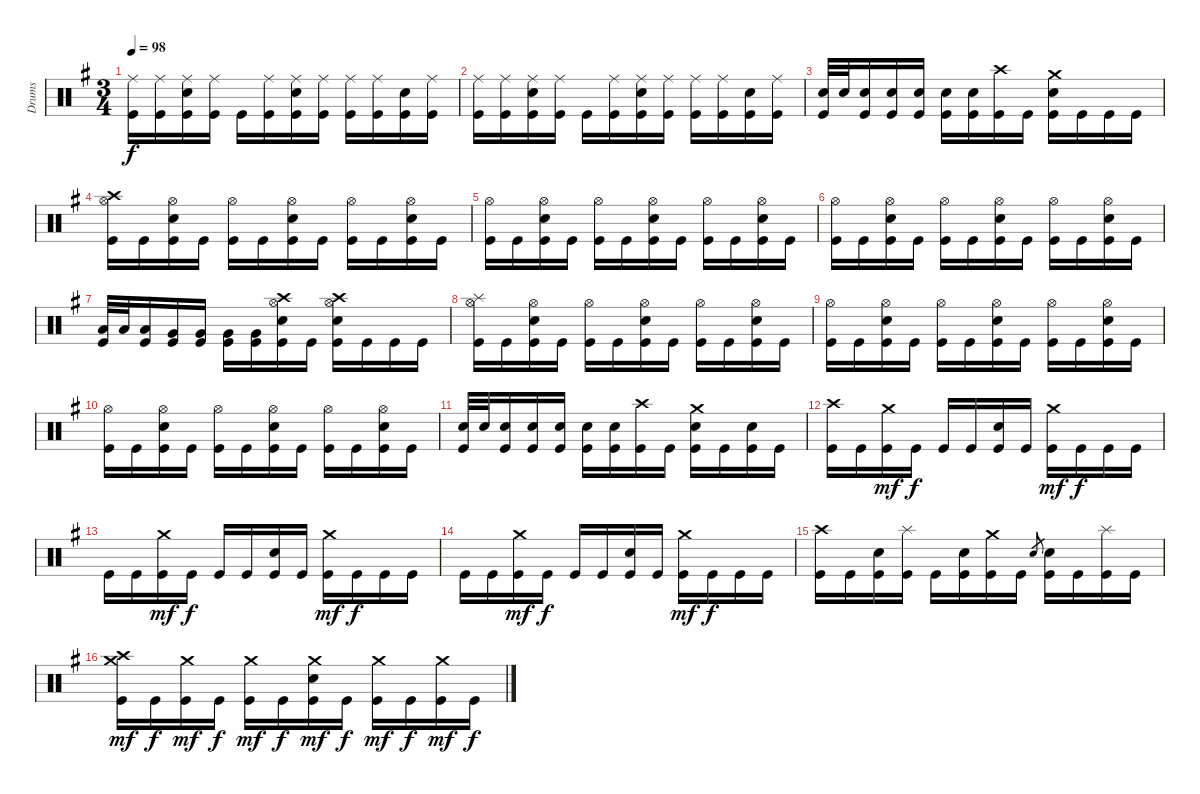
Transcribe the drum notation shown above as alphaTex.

\track ("Drums" "Drums") {instrument percussion}
\staff {score}
\articulation defaults
\ts (3 4)
\tempo 98
\clef neutral
\ks eminor
("Ride (middle)" "Kick (hit)").16{dy f} ("Ride (middle)" "Kick (hit)").16 ("Ride (middle)" "Electric Snare (hit)" "Kick (hit)").16 ("Ride (middle)" "Kick (hit)").16 "Kick (hit)".16 ("Ride (middle)" "Kick (hit)").16 ("Ride (middle)" "Electric Snare (hit)" "Kick (hit)").16 ("Ride (middle)" "Kick (hit)").16 ("Ride (middle)" "Kick (hit)").16 ("Ride (middle)" "Kick (hit)").16 ("Electric Snare (hit)" "Kick (hit)").16 ("Ride (middle)" "Kick (hit)").16 |
("Ride (middle)" "Kick (hit)").16 ("Ride (middle)" "Kick (hit)").16 ("Ride (middle)" "Electric Snare (hit)" "Kick (hit)").16 ("Ride (middle)" "Kick (hit)").16 "Kick (hit)".16 ("Ride (middle)" "Kick (hit)").16 ("Ride (middle)" "Electric Snare (hit)" "Kick (hit)").16 ("Ride (middle)" "Kick (hit)").16 ("Ride (middle)" "Kick (hit)").16 ("Ride (middle)" "Kick (hit)").16 ("Electric Snare (hit)" "Kick (hit)").16 ("Ride (middle)" "Kick (hit)").16 |
("Electric Snare (hit)" "Kick (hit)").32 "Electric Snare (hit)".32 ("Electric Snare (hit)" "Kick (hit)").16 ("Electric Snare (hit)" "Kick (hit)").16 ("Electric Snare (hit)" "Kick (hit)").16 ("Electric Snare (hit)" "Kick (hit)").16 ("Electric Snare (hit)" "Kick (hit)").16 ("Crash high (hit)" "Kick (hit)").16 "Kick (hit)".16 ("Crash medium (hit)" "Electric Snare (hit)" "Kick (hit)").16 "Kick (hit)".16 "Kick (hit)".16 "Kick (hit)".16 |
("Crash high (hit)" "Hi-Hat (open)" "Kick (hit)").16 "Kick (hit)".16 ("Hi-Hat (open)" "Electric Snare (hit)" "Kick (hit)").16 "Kick (hit)".16 ("Hi-Hat (open)" "Kick (hit)").16 "Kick (hit)".16 ("Hi-Hat (open)" "Electric Snare (hit)" "Kick (hit)").16 "Kick (hit)".16 ("Hi-Hat (open)" "Kick (hit)").16 "Kick (hit)".16 ("Hi-Hat (open)" "Electric Snare (hit)" "Kick (hit)").16 "Kick (hit)".16 |
("Hi-Hat (open)" "Kick (hit)").16 "Kick (hit)".16 ("Hi-Hat (open)" "Electric Snare (hit)" "Kick (hit)").16 "Kick (hit)".16 ("Hi-Hat (open)" "Kick (hit)").16 "Kick (hit)".16 ("Hi-Hat (open)" "Electric Snare (hit)" "Kick (hit)").16 "Kick (hit)".16 ("Hi-Hat (open)" "Kick (hit)").16 "Kick (hit)".16 ("Hi-Hat (open)" "Electric Snare (hit)" "Kick (hit)").16 "Kick (hit)".16 |
("Hi-Hat (open)" "Kick (hit)").16 "Kick (hit)".16 ("Hi-Hat (open)" "Electric Snare (hit)" "Kick (hit)").16 "Kick (hit)".16 ("Hi-Hat (open)" "Kick (hit)").16 "Kick (hit)".16 ("Hi-Hat (open)" "Electric Snare (hit)" "Kick (hit)").16 "Kick (hit)".16 ("Hi-Hat (open)" "Kick (hit)").16 "Kick (hit)".16 ("Hi-Hat (open)" "Electric Snare (hit)" "Kick (hit)").16 "Kick (hit)".16 |
("Low Tom (hit)" "Kick (hit)").32 "Low Tom (hit)".32 ("Low Tom (hit)" "Kick (hit)").16 ("Very Low Tom (hit)" "Kick (hit)").16 ("Very Low Tom (hit)" "Kick (hit)").16 ("Very Low Tom (hit)" "Kick (hit)").16 ("Very Low Tom (hit)" "Kick (hit)").16 ("Crash high (hit)" "Hi-Hat (open)" "Electric Snare (hit)" "Kick (hit)").16 "Kick (hit)".16 ("Crash high (hit)" "Hi-Hat (open)" "Electric Snare (hit)" "Kick (hit)").16 "Kick (hit)".16 "Kick (hit)".16 "Kick (hit)".16 |
("Splash (hit)" "Hi-Hat (open)" "Kick (hit)").16 "Kick (hit)".16 ("Hi-Hat (open)" "Electric Snare (hit)" "Kick (hit)").16 "Kick (hit)".16 ("Hi-Hat (open)" "Kick (hit)").16 "Kick (hit)".16 ("Hi-Hat (open)" "Electric Snare (hit)" "Kick (hit)").16 "Kick (hit)".16 ("Hi-Hat (open)" "Kick (hit)").16 "Kick (hit)".16 ("Hi-Hat (open)" "Electric Snare (hit)" "Kick (hit)").16 "Kick (hit)".16 |
("Hi-Hat (open)" "Kick (hit)").16 "Kick (hit)".16 ("Hi-Hat (open)" "Electric Snare (hit)" "Kick (hit)").16 "Kick (hit)".16 ("Hi-Hat (open)" "Kick (hit)").16 "Kick (hit)".16 ("Hi-Hat (open)" "Electric Snare (hit)" "Kick (hit)").16 "Kick (hit)".16 ("Hi-Hat (open)" "Kick (hit)").16 "Kick (hit)".16 ("Hi-Hat (open)" "Electric Snare (hit)" "Kick (hit)").16 "Kick (hit)".16 |
("Hi-Hat (open)" "Kick (hit)").16 "Kick (hit)".16 ("Hi-Hat (open)" "Electric Snare (hit)" "Kick (hit)").16 "Kick (hit)".16 ("Hi-Hat (open)" "Kick (hit)").16 "Kick (hit)".16 ("Hi-Hat (open)" "Electric Snare (hit)" "Kick (hit)").16 "Kick (hit)".16 ("Hi-Hat (open)" "Kick (hit)").16 "Kick (hit)".16 ("Hi-Hat (open)" "Electric Snare (hit)" "Kick (hit)").16 "Kick (hit)".16 |
("Electric Snare (hit)" "Kick (hit)").32 "Electric Snare (hit)".32 ("Electric Snare (hit)" "Kick (hit)").16 ("Electric Snare (hit)" "Kick (hit)").16 ("Electric Snare (hit)" "Kick (hit)").16 ("Electric Snare (hit)" "Kick (hit)").16 ("Electric Snare (hit)" "Kick (hit)").16 ("Crash high (hit)" "Kick (hit)").16 "Kick (hit)".16 ("Crash medium (hit)" "Electric Snare (hit)" "Kick (hit)").16 "Kick (hit)".16 ("Electric Snare (hit)" "Kick (hit)").16 "Kick (hit)".16 |
("Crash high (hit)" "Kick (hit)").16 "Kick (hit)".16 ("Crash medium (hit)" "Kick (hit)").16{dy mf} "Kick (hit)".16{dy f} "Kick (hit)".16 "Kick (hit)".16 ("Electric Snare (hit)" "Kick (hit)").16 "Kick (hit)".16 ("Crash medium (hit)" "Kick (hit)").16{dy mf} "Kick (hit)".16{dy f} "Kick (hit)".16 "Kick (hit)".16 |
"Kick (hit)".16 "Kick (hit)".16 ("Crash medium (hit)" "Kick (hit)").16{dy mf} "Kick (hit)".16{dy f} "Kick (hit)".16 "Kick (hit)".16 ("Electric Snare (hit)" "Kick (hit)").16 "Kick (hit)".16 ("Crash medium (hit)" "Kick (hit)").16{dy mf} "Kick (hit)".16{dy f} "Kick (hit)".16 "Kick (hit)".16 |
"Kick (hit)".16 "Kick (hit)".16 ("Crash medium (hit)" "Kick (hit)").16{dy mf} "Kick (hit)".16{dy f} "Kick (hit)".16 "Kick (hit)".16 ("Electric Snare (hit)" "Kick (hit)").16 "Kick (hit)".16 ("Crash medium (hit)" "Kick (hit)").16{dy mf} "Kick (hit)".16{dy f} "Kick (hit)".16 "Kick (hit)".16 |
("Crash high (hit)" "Kick (hit)").16 "Kick (hit)".16 ("Electric Snare (hit)" "Kick (hit)").16 ("Splash (hit)" "Kick (hit)").16 "Kick (hit)".16 ("Electric Snare (hit)" "Kick (hit)").16 ("Crash medium (hit)" "Kick (hit)").16 "Kick (hit)".16 "Electric Snare (hit)".8{gr} ("Electric Snare (hit)" "Kick (hit)").16 "Kick (hit)".16 ("Splash (hit)" "Kick (hit)").16 "Kick (hit)".16 |
("Crash high (hit)" "Crash medium (hit)" "Kick (hit)").16{dy mf} "Kick (hit)".16{dy f} ("Crash medium (hit)" "Kick (hit)").16{dy mf} "Kick (hit)".16{dy f} ("Crash medium (hit)" "Kick (hit)").16{dy mf} "Kick (hit)".16{dy f} ("Crash medium (hit)" "Electric Snare (hit)" "Kick (hit)").16{dy mf} "Kick (hit)".16{dy f} ("Crash medium (hit)" "Kick (hit)").16{dy mf} "Kick (hit)".16{dy f} ("Crash medium (hit)" "Kick (hit)").16{dy mf} "Kick (hit)".16{dy f}
